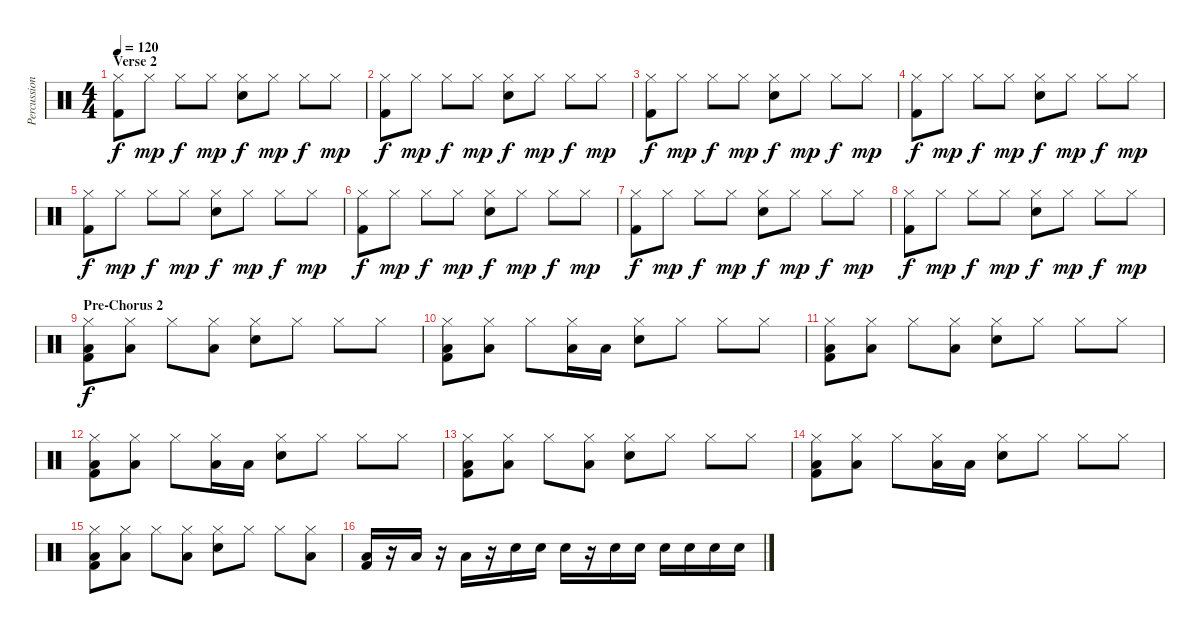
\track ("Percussion" "Percussion") {instrument percussion}
\staff {score}
\articulation defaults
\ts (4 4)
\section ("" "Verse 2")
\tempo 120
\clef neutral
\ks c
("Kick (hit) 2" "Hi-Hat (closed)").8{dy f} "Hi-Hat (closed)".8{dy mp} "Hi-Hat (closed)".8{dy f} "Hi-Hat (closed)".8{dy mp} ("Snare (hit) 2" "Hi-Hat (closed)").8{dy f} "Hi-Hat (closed)".8{dy mp} "Hi-Hat (closed)".8{dy f} "Hi-Hat (closed)".8{dy mp} |
("Kick (hit) 2" "Hi-Hat (closed)").8{dy f} "Hi-Hat (closed)".8{dy mp} "Hi-Hat (closed)".8{dy f} "Hi-Hat (closed)".8{dy mp} ("Snare (hit) 2" "Hi-Hat (closed)").8{dy f} "Hi-Hat (closed)".8{dy mp} "Hi-Hat (closed)".8{dy f} "Hi-Hat (closed)".8{dy mp} |
("Kick (hit) 2" "Hi-Hat (closed)").8{dy f} "Hi-Hat (closed)".8{dy mp} "Hi-Hat (closed)".8{dy f} "Hi-Hat (closed)".8{dy mp} ("Snare (hit) 2" "Hi-Hat (closed)").8{dy f} "Hi-Hat (closed)".8{dy mp} "Hi-Hat (closed)".8{dy f} "Hi-Hat (closed)".8{dy mp} |
("Kick (hit) 2" "Hi-Hat (closed)").8{dy f} "Hi-Hat (closed)".8{dy mp} "Hi-Hat (closed)".8{dy f} "Hi-Hat (closed)".8{dy mp} ("Snare (hit) 2" "Hi-Hat (closed)").8{dy f} "Hi-Hat (closed)".8{dy mp} "Hi-Hat (closed)".8{dy f} "Hi-Hat (closed)".8{dy mp} |
("Kick (hit) 2" "Hi-Hat (closed)").8{dy f} "Hi-Hat (closed)".8{dy mp} "Hi-Hat (closed)".8{dy f} "Hi-Hat (closed)".8{dy mp} ("Snare (hit) 2" "Hi-Hat (closed)").8{dy f} "Hi-Hat (closed)".8{dy mp} "Hi-Hat (closed)".8{dy f} "Hi-Hat (closed)".8{dy mp} |
("Kick (hit) 2" "Hi-Hat (closed)").8{dy f} "Hi-Hat (closed)".8{dy mp} "Hi-Hat (closed)".8{dy f} "Hi-Hat (closed)".8{dy mp} ("Snare (hit) 2" "Hi-Hat (closed)").8{dy f} "Hi-Hat (closed)".8{dy mp} "Hi-Hat (closed)".8{dy f} "Hi-Hat (closed)".8{dy mp} |
("Kick (hit) 2" "Hi-Hat (closed)").8{dy f} "Hi-Hat (closed)".8{dy mp} "Hi-Hat (closed)".8{dy f} "Hi-Hat (closed)".8{dy mp} ("Snare (hit) 2" "Hi-Hat (closed)").8{dy f} "Hi-Hat (closed)".8{dy mp} "Hi-Hat (closed)".8{dy f} "Hi-Hat (closed)".8{dy mp} |
("Kick (hit) 2" "Hi-Hat (closed)").8{dy f} "Hi-Hat (closed)".8{dy mp} "Hi-Hat (closed)".8{dy f} "Hi-Hat (closed)".8{dy mp} ("Snare (hit) 2" "Hi-Hat (closed)").8{dy f} "Hi-Hat (closed)".8{dy mp} "Hi-Hat (closed)".8{dy f} "Hi-Hat (closed)".8{dy mp} |
\section ("" "Pre-Chorus 2")
("Kick (hit) 2" "Low Tom (hit)" "Hi-Hat (closed)").8{dy f} ("Low Tom (hit)" "Hi-Hat (closed)").8 "Hi-Hat (closed)".8 ("Low Tom (hit)" "Hi-Hat (closed)").8 ("Snare (hit) 2" "Hi-Hat (closed)").8 "Hi-Hat (closed)".8 "Hi-Hat (closed)".8 "Hi-Hat (closed)".8 |
("Kick (hit) 2" "Low Tom (hit)" "Hi-Hat (closed)").8 ("Low Tom (hit)" "Hi-Hat (closed)").8 "Hi-Hat (closed)".8 ("Low Tom (hit)" "Hi-Hat (closed)").16 "Low Tom (hit)".16 ("Snare (hit) 2" "Hi-Hat (closed)").8 "Hi-Hat (closed)".8 "Hi-Hat (closed)".8 "Hi-Hat (closed)".8 |
("Kick (hit) 2" "Low Tom (hit)" "Hi-Hat (closed)").8 ("Low Tom (hit)" "Hi-Hat (closed)").8 "Hi-Hat (closed)".8 ("Low Tom (hit)" "Hi-Hat (closed)").8 ("Snare (hit) 2" "Hi-Hat (closed)").8 "Hi-Hat (closed)".8 "Hi-Hat (closed)".8 "Hi-Hat (closed)".8 |
("Kick (hit) 2" "Low Tom (hit)" "Hi-Hat (closed)").8 ("Low Tom (hit)" "Hi-Hat (closed)").8 "Hi-Hat (closed)".8 ("Low Tom (hit)" "Hi-Hat (closed)").16 "Low Tom (hit)".16 ("Snare (hit) 2" "Hi-Hat (closed)").8 "Hi-Hat (closed)".8 "Hi-Hat (closed)".8 "Hi-Hat (closed)".8 |
("Kick (hit) 2" "Low Tom (hit)" "Hi-Hat (closed)").8 ("Low Tom (hit)" "Hi-Hat (closed)").8 "Hi-Hat (closed)".8 ("Low Tom (hit)" "Hi-Hat (closed)").8 ("Snare (hit) 2" "Hi-Hat (closed)").8 "Hi-Hat (closed)".8 "Hi-Hat (closed)".8 "Hi-Hat (closed)".8 |
("Kick (hit) 2" "Low Tom (hit)" "Hi-Hat (closed)").8 ("Low Tom (hit)" "Hi-Hat (closed)").8 "Hi-Hat (closed)".8 ("Low Tom (hit)" "Hi-Hat (closed)").16 "Low Tom (hit)".16 ("Snare (hit) 2" "Hi-Hat (closed)").8 "Hi-Hat (closed)".8 "Hi-Hat (closed)".8 "Hi-Hat (closed)".8 |
("Kick (hit) 2" "Low Tom (hit)" "Hi-Hat (closed)").8 ("Low Tom (hit)" "Hi-Hat (closed)").8 "Hi-Hat (closed)".8 ("Low Tom (hit)" "Hi-Hat (closed)").8 ("Snare (hit) 2" "Hi-Hat (closed)").8 "Hi-Hat (closed)".8 "Hi-Hat (closed)".8 ("Low Tom (hit)" "Hi-Hat (closed)").8 |
("Kick (hit) 2" "Low Tom (hit)").16 r.16 "Low Tom (hit)".16 r.16 "Low Tom (hit)".16 r.16 "Snare (hit) 2".16 "Snare (hit) 2".16 "Snare (hit) 2".16 r.16 "Snare (hit) 2".16 "Snare (hit) 2".16 "Snare (hit) 2".16 "Snare (hit) 2".16 "Snare (hit) 2".16 "Snare (hit) 2".16
